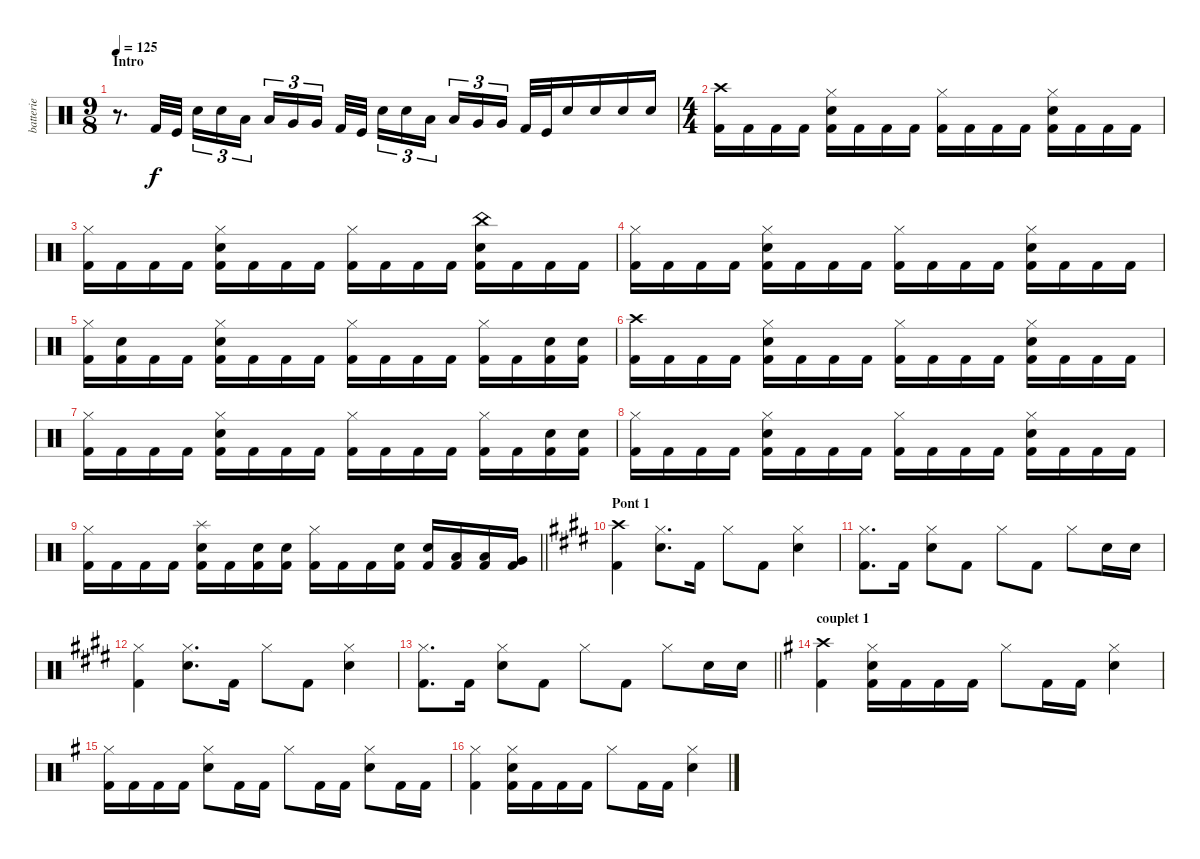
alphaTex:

\track ("batterie" "batterie") {instrument percussion}
\staff {score}
\articulation defaults
\ts (9 8)
\section ("" "Intro")
\tempo 125
\clef neutral
\ks aminor
r.8{d dy f} "Kick (hit) 2".32 "Kick (hit)".32 "Electric Snare (hit)".16{tu (3 2)} "Electric Snare (hit)".16{tu (3 2)} "Low Tom (hit)".16{tu (3 2)} "Low Tom (hit)".16{tu (3 2)} "Very Low Tom (hit)".16{tu (3 2)} "Very Low Tom (hit)".16{tu (3 2)} "Kick (hit) 2".32 "Kick (hit)".32 "Electric Snare (hit)".16{tu (3 2)} "Electric Snare (hit)".16{tu (3 2)} "Low Tom (hit)".16{tu (3 2)} "Low Tom (hit)".16{tu (3 2)} "Very Low Tom (hit)".16{tu (3 2)} "Very Low Tom (hit)".16{tu (3 2)} "Kick (hit) 2".32 "Kick (hit)".32 "Electric Snare (hit)".16 "Electric Snare (hit)".16 "Electric Snare (hit)".16 "Electric Snare (hit)".16 |
\ts (4 4)
("Crash high (hit)" "Kick (hit) 2").16 "Kick (hit) 2".16 "Kick (hit) 2".16 "Kick (hit) 2".16 ("Hi-Hat (closed)" "Electric Snare (hit)" "Kick (hit) 2").16 "Kick (hit) 2".16 "Kick (hit) 2".16 "Kick (hit) 2".16 ("Hi-Hat (closed)" "Kick (hit) 2").16 "Kick (hit) 2".16 "Kick (hit) 2".16 "Kick (hit) 2".16 ("Hi-Hat (closed)" "Electric Snare (hit)" "Kick (hit) 2").16 "Kick (hit) 2".16 "Kick (hit) 2".16 "Kick (hit) 2".16 |
("Hi-Hat (closed)" "Kick (hit) 2").16 "Kick (hit) 2".16 "Kick (hit) 2".16 "Kick (hit) 2".16 ("Hi-Hat (closed)" "Electric Snare (hit)" "Kick (hit) 2").16 "Kick (hit) 2".16 "Kick (hit) 2".16 "Kick (hit) 2".16 ("Hi-Hat (closed)" "Kick (hit) 2").16 "Kick (hit) 2".16 "Kick (hit) 2".16 "Kick (hit) 2".16 ("China (hit)" "Electric Snare (hit)" "Kick (hit) 2").16 "Kick (hit) 2".16 "Kick (hit) 2".16 "Kick (hit) 2".16 |
("Hi-Hat (closed)" "Kick (hit) 2").16 "Kick (hit) 2".16 "Kick (hit) 2".16 "Kick (hit) 2".16 ("Hi-Hat (closed)" "Electric Snare (hit)" "Kick (hit) 2").16 "Kick (hit) 2".16 "Kick (hit) 2".16 "Kick (hit) 2".16 ("Hi-Hat (closed)" "Kick (hit) 2").16 "Kick (hit) 2".16 "Kick (hit) 2".16 "Kick (hit) 2".16 ("Hi-Hat (closed)" "Electric Snare (hit)" "Kick (hit) 2").16 "Kick (hit) 2".16 "Kick (hit) 2".16 "Kick (hit) 2".16 |
("Hi-Hat (closed)" "Kick (hit) 2").16 ("Electric Snare (hit)" "Kick (hit) 2").16 "Kick (hit) 2".16 "Kick (hit) 2".16 ("Hi-Hat (closed)" "Electric Snare (hit)" "Kick (hit) 2").16 "Kick (hit) 2".16 "Kick (hit) 2".16 "Kick (hit) 2".16 ("Hi-Hat (closed)" "Kick (hit) 2").16 "Kick (hit) 2".16 "Kick (hit) 2".16 "Kick (hit) 2".16 ("Hi-Hat (closed)" "Kick (hit) 2").16 "Kick (hit) 2".16 ("Electric Snare (hit)" "Kick (hit) 2").16 ("Electric Snare (hit)" "Kick (hit) 2").16 |
("Crash high (hit)" "Kick (hit) 2").16 "Kick (hit) 2".16 "Kick (hit) 2".16 "Kick (hit) 2".16 ("Hi-Hat (closed)" "Electric Snare (hit)" "Kick (hit) 2").16 "Kick (hit) 2".16 "Kick (hit) 2".16 "Kick (hit) 2".16 ("Hi-Hat (closed)" "Kick (hit) 2").16 "Kick (hit) 2".16 "Kick (hit) 2".16 "Kick (hit) 2".16 ("Hi-Hat (closed)" "Electric Snare (hit)" "Kick (hit) 2").16 "Kick (hit) 2".16 "Kick (hit) 2".16 "Kick (hit) 2".16 |
("Hi-Hat (closed)" "Kick (hit) 2").16 "Kick (hit) 2".16 "Kick (hit) 2".16 "Kick (hit) 2".16 ("Hi-Hat (closed)" "Electric Snare (hit)" "Kick (hit) 2").16 "Kick (hit) 2".16 "Kick (hit) 2".16 "Kick (hit) 2".16 ("Hi-Hat (closed)" "Kick (hit) 2").16 "Kick (hit) 2".16 "Kick (hit) 2".16 "Kick (hit) 2".16 ("Hi-Hat (closed)" "Kick (hit) 2").16 "Kick (hit) 2".16 ("Electric Snare (hit)" "Kick (hit) 2").16 ("Electric Snare (hit)" "Kick (hit) 2").16 |
("Hi-Hat (closed)" "Kick (hit) 2").16 "Kick (hit) 2".16 "Kick (hit) 2".16 "Kick (hit) 2".16 ("Hi-Hat (closed)" "Electric Snare (hit)" "Kick (hit) 2").16 "Kick (hit) 2".16 "Kick (hit) 2".16 "Kick (hit) 2".16 ("Hi-Hat (closed)" "Kick (hit) 2").16 "Kick (hit) 2".16 "Kick (hit) 2".16 "Kick (hit) 2".16 ("Hi-Hat (closed)" "Electric Snare (hit)" "Kick (hit) 2").16 "Kick (hit) 2".16 "Kick (hit) 2".16 "Kick (hit) 2".16 |
\barLineRight lightlight
("Hi-Hat (closed)" "Kick (hit) 2").16 "Kick (hit) 2".16 "Kick (hit) 2".16 "Kick (hit) 2".16 ("Splash (hit)" "Electric Snare (hit)" "Kick (hit) 2").16 "Kick (hit) 2".16 ("Electric Snare (hit)" "Kick (hit) 2").16 ("Electric Snare (hit)" "Kick (hit) 2").16 ("Hi-Hat (closed)" "Kick (hit) 2").16 "Kick (hit) 2".16 "Kick (hit) 2".16 ("Electric Snare (hit)" "Kick (hit) 2").16 ("Electric Snare (hit)" "Kick (hit) 2").16 ("Low Tom (hit)" "Kick (hit) 2").16 ("Low Tom (hit)" "Kick (hit) 2").16 ("Very Low Tom (hit)" "Kick (hit) 2").16 |
\section ("" "Pont 1")
\ks c#minor
("Crash high (hit)" "Kick (hit) 2").4 ("Hi-Hat (closed)" "Electric Snare (hit)").8{d} "Kick (hit) 2".16 "Hi-Hat (closed)".8 "Kick (hit) 2".8 ("Hi-Hat (closed)" "Electric Snare (hit)").4 |
("Hi-Hat (closed)" "Kick (hit) 2").8{d} "Kick (hit) 2".16 ("Hi-Hat (closed)" "Electric Snare (hit)").8 "Kick (hit) 2".8 "Hi-Hat (closed)".8 "Kick (hit) 2".8 "Hi-Hat (closed)".8 "Electric Snare (hit)".16 "Electric Snare (hit)".16 |
("Hi-Hat (closed)" "Kick (hit) 2").4 ("Hi-Hat (closed)" "Electric Snare (hit)").8{d} "Kick (hit) 2".16 "Hi-Hat (closed)".8 "Kick (hit) 2".8 ("Hi-Hat (closed)" "Electric Snare (hit)").4 |
\barLineRight lightlight
("Hi-Hat (closed)" "Kick (hit) 2").8{d} "Kick (hit) 2".16 ("Hi-Hat (closed)" "Electric Snare (hit)").8 "Kick (hit) 2".8 "Hi-Hat (closed)".8 "Kick (hit) 2".8 "Hi-Hat (closed)".8 "Electric Snare (hit)".16 "Electric Snare (hit)".16 |
\section ("" "couplet 1")
\ks eminor
("Crash high (hit)" "Kick (hit) 2").4 ("Hi-Hat (closed)" "Electric Snare (hit)" "Kick (hit) 2").16 "Kick (hit) 2".16 "Kick (hit) 2".16 "Kick (hit) 2".16 "Hi-Hat (closed)".8 "Kick (hit) 2".16 "Kick (hit) 2".16 ("Hi-Hat (closed)" "Electric Snare (hit)").4 |
("Hi-Hat (closed)" "Kick (hit) 2").16 "Kick (hit) 2".16 "Kick (hit) 2".16 "Kick (hit) 2".16 ("Hi-Hat (closed)" "Electric Snare (hit)").8 "Kick (hit) 2".16 "Kick (hit) 2".16 "Hi-Hat (closed)".8 "Kick (hit) 2".16 "Kick (hit) 2".16 ("Hi-Hat (closed)" "Electric Snare (hit)").8 "Kick (hit) 2".16 "Kick (hit) 2".16 |
("Hi-Hat (closed)" "Kick (hit) 2").4 ("Hi-Hat (closed)" "Electric Snare (hit)" "Kick (hit) 2").16 "Kick (hit) 2".16 "Kick (hit) 2".16 "Kick (hit) 2".16 "Hi-Hat (closed)".8 "Kick (hit) 2".16 "Kick (hit) 2".16 ("Hi-Hat (closed)" "Electric Snare (hit)").4
